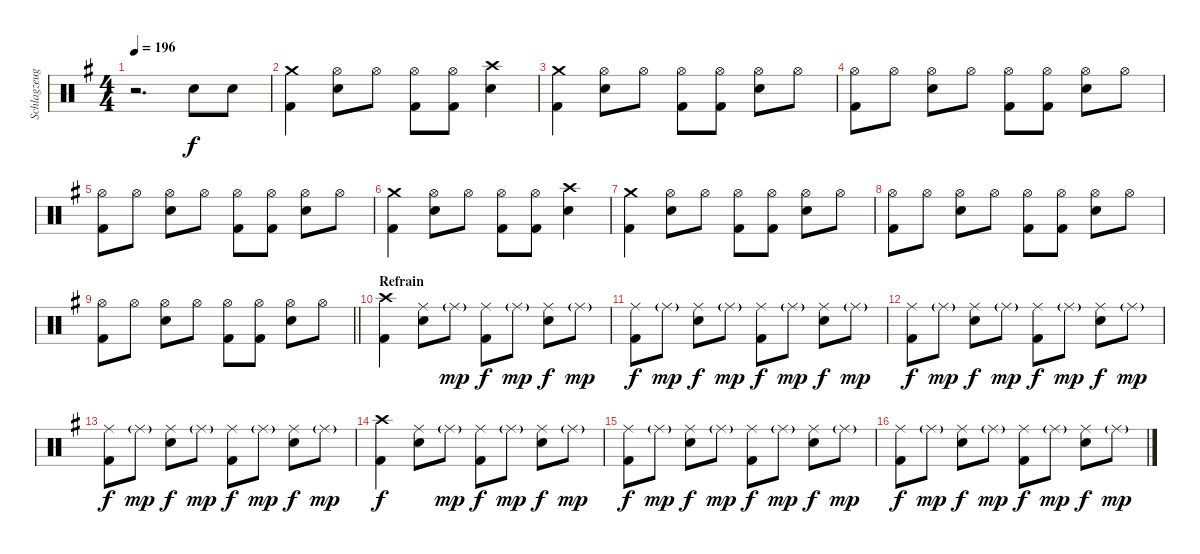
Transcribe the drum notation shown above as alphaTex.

\track ("Schlagzeug" "Schlagzeug") {instrument percussion}
\staff {score}
\articulation defaults
\ts (4 4)
\tempo 196
\clef neutral
\ks g
r.2{d dy f} "Snare (hit) 2".8 "Snare (hit) 2".8 |
("Crash medium (hit)" "Kick (hit) 2").4 ("Hi-Hat (open)" "Snare (hit) 2").8 "Hi-Hat (open)".8 ("Hi-Hat (open)" "Kick (hit) 2").8 ("Hi-Hat (open)" "Kick (hit) 2").8 ("Crash high (hit)" "Snare (hit) 2").4 |
("Crash medium (hit)" "Kick (hit) 2").4 ("Hi-Hat (open)" "Snare (hit) 2").8 "Hi-Hat (open)".8 ("Hi-Hat (open)" "Kick (hit) 2").8 ("Hi-Hat (open)" "Kick (hit) 2").8 ("Hi-Hat (open)" "Snare (hit) 2").8 "Hi-Hat (open)".8 |
("Hi-Hat (open)" "Kick (hit) 2").8 "Hi-Hat (open)".8 ("Hi-Hat (open)" "Snare (hit) 2").8 "Hi-Hat (open)".8 ("Hi-Hat (open)" "Kick (hit) 2").8 ("Hi-Hat (open)" "Kick (hit) 2").8 ("Hi-Hat (open)" "Snare (hit) 2").8 "Hi-Hat (open)".8 |
("Hi-Hat (open)" "Kick (hit) 2").8 "Hi-Hat (open)".8 ("Hi-Hat (open)" "Snare (hit) 2").8 "Hi-Hat (open)".8 ("Hi-Hat (open)" "Kick (hit) 2").8 ("Hi-Hat (open)" "Kick (hit) 2").8 ("Hi-Hat (open)" "Snare (hit) 2").8 "Hi-Hat (open)".8 |
("Crash medium (hit)" "Kick (hit) 2").4 ("Hi-Hat (open)" "Snare (hit) 2").8 "Hi-Hat (open)".8 ("Hi-Hat (open)" "Kick (hit) 2").8 ("Hi-Hat (open)" "Kick (hit) 2").8 ("Crash high (hit)" "Snare (hit) 2").4 |
("Crash medium (hit)" "Kick (hit) 2").4 ("Hi-Hat (open)" "Snare (hit) 2").8 "Hi-Hat (open)".8 ("Hi-Hat (open)" "Kick (hit) 2").8 ("Hi-Hat (open)" "Kick (hit) 2").8 ("Hi-Hat (open)" "Snare (hit) 2").8 "Hi-Hat (open)".8 |
("Hi-Hat (open)" "Kick (hit) 2").8 "Hi-Hat (open)".8 ("Hi-Hat (open)" "Snare (hit) 2").8 "Hi-Hat (open)".8 ("Hi-Hat (open)" "Kick (hit) 2").8 ("Hi-Hat (open)" "Kick (hit) 2").8 ("Hi-Hat (open)" "Snare (hit) 2").8 "Hi-Hat (open)".8 |
\barLineRight lightlight
("Hi-Hat (open)" "Kick (hit) 2").8 "Hi-Hat (open)".8 ("Hi-Hat (open)" "Snare (hit) 2").8 "Hi-Hat (open)".8 ("Hi-Hat (open)" "Kick (hit) 2").8 ("Hi-Hat (open)" "Kick (hit) 2").8 ("Hi-Hat (open)" "Snare (hit) 2").8 "Hi-Hat (open)".8 |
\section ("" "Refrain")
("Crash high (hit)" "Kick (hit) 2").4 ("Ride (middle)" "Snare (hit) 2").8 "Ride (middle)"{g}.8{dy mp} ("Ride (middle)" "Kick (hit) 2").8{dy f} "Ride (middle)"{g}.8{dy mp} ("Ride (middle)" "Snare (hit) 2").8{dy f} "Ride (middle)"{g}.8{dy mp} |
("Ride (middle)" "Kick (hit) 2").8{dy f} "Ride (middle)"{g}.8{dy mp} ("Ride (middle)" "Snare (hit) 2").8{dy f} "Ride (middle)"{g}.8{dy mp} ("Ride (middle)" "Kick (hit) 2").8{dy f} "Ride (middle)"{g}.8{dy mp} ("Ride (middle)" "Snare (hit) 2").8{dy f} "Ride (middle)"{g}.8{dy mp} |
("Ride (middle)" "Kick (hit) 2").8{dy f} "Ride (middle)"{g}.8{dy mp} ("Ride (middle)" "Snare (hit) 2").8{dy f} "Ride (middle)"{g}.8{dy mp} ("Ride (middle)" "Kick (hit) 2").8{dy f} "Ride (middle)"{g}.8{dy mp} ("Ride (middle)" "Snare (hit) 2").8{dy f} "Ride (middle)"{g}.8{dy mp} |
("Ride (middle)" "Kick (hit) 2").8{dy f} "Ride (middle)"{g}.8{dy mp} ("Ride (middle)" "Snare (hit) 2").8{dy f} "Ride (middle)"{g}.8{dy mp} ("Ride (middle)" "Kick (hit) 2").8{dy f} "Ride (middle)"{g}.8{dy mp} ("Ride (middle)" "Snare (hit) 2").8{dy f} "Ride (middle)"{g}.8{dy mp} |
("Crash high (hit)" "Kick (hit) 2").4{dy f} ("Ride (middle)" "Snare (hit) 2").8 "Ride (middle)"{g}.8{dy mp} ("Ride (middle)" "Kick (hit) 2").8{dy f} "Ride (middle)"{g}.8{dy mp} ("Ride (middle)" "Snare (hit) 2").8{dy f} "Ride (middle)"{g}.8{dy mp} |
("Ride (middle)" "Kick (hit) 2").8{dy f} "Ride (middle)"{g}.8{dy mp} ("Ride (middle)" "Snare (hit) 2").8{dy f} "Ride (middle)"{g}.8{dy mp} ("Ride (middle)" "Kick (hit) 2").8{dy f} "Ride (middle)"{g}.8{dy mp} ("Ride (middle)" "Snare (hit) 2").8{dy f} "Ride (middle)"{g}.8{dy mp} |
("Ride (middle)" "Kick (hit) 2").8{dy f} "Ride (middle)"{g}.8{dy mp} ("Ride (middle)" "Snare (hit) 2").8{dy f} "Ride (middle)"{g}.8{dy mp} ("Ride (middle)" "Kick (hit) 2").8{dy f} "Ride (middle)"{g}.8{dy mp} ("Ride (middle)" "Snare (hit) 2").8{dy f} "Ride (middle)"{g}.8{dy mp}
